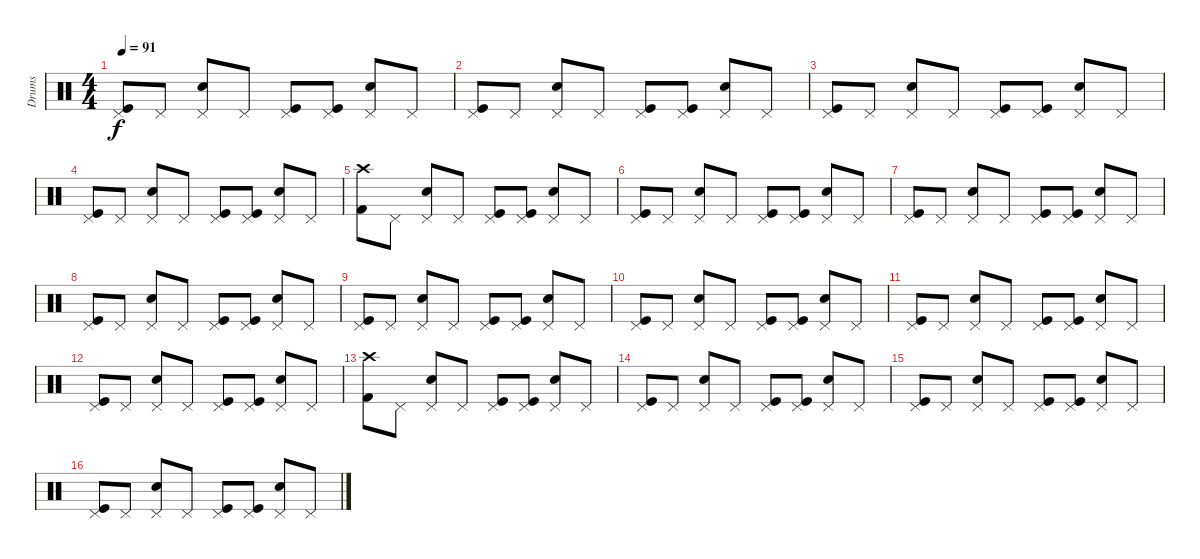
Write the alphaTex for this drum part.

\track ("Drums" "Drums") {instrument percussion}
\staff {score}
\articulation defaults
\ts (4 4)
\tempo 91
\clef neutral
\ks c
("Kick (hit)" "Pedal Hi-Hat (hit)").8{dy f} "Pedal Hi-Hat (hit)".8 ("Snare (hit) 2" "Pedal Hi-Hat (hit)").8 "Pedal Hi-Hat (hit)".8 ("Kick (hit)" "Pedal Hi-Hat (hit)").8 ("Kick (hit)" "Pedal Hi-Hat (hit)").8 ("Snare (hit) 2" "Pedal Hi-Hat (hit)").8 "Pedal Hi-Hat (hit)".8 |
("Kick (hit)" "Pedal Hi-Hat (hit)").8 "Pedal Hi-Hat (hit)".8 ("Snare (hit) 2" "Pedal Hi-Hat (hit)").8 "Pedal Hi-Hat (hit)".8 ("Kick (hit)" "Pedal Hi-Hat (hit)").8 ("Kick (hit)" "Pedal Hi-Hat (hit)").8 ("Snare (hit) 2" "Pedal Hi-Hat (hit)").8 "Pedal Hi-Hat (hit)".8 |
("Kick (hit)" "Pedal Hi-Hat (hit)").8 "Pedal Hi-Hat (hit)".8 ("Snare (hit) 2" "Pedal Hi-Hat (hit)").8 "Pedal Hi-Hat (hit)".8 ("Kick (hit)" "Pedal Hi-Hat (hit)").8 ("Kick (hit)" "Pedal Hi-Hat (hit)").8 ("Snare (hit) 2" "Pedal Hi-Hat (hit)").8 "Pedal Hi-Hat (hit)".8 |
("Kick (hit)" "Pedal Hi-Hat (hit)").8 "Pedal Hi-Hat (hit)".8 ("Snare (hit) 2" "Pedal Hi-Hat (hit)").8 "Pedal Hi-Hat (hit)".8 ("Kick (hit)" "Pedal Hi-Hat (hit)").8 ("Kick (hit)" "Pedal Hi-Hat (hit)").8 ("Snare (hit) 2" "Pedal Hi-Hat (hit)").8 "Pedal Hi-Hat (hit)".8 |
("Crash high (hit)" "Kick (hit) 2").8 "Pedal Hi-Hat (hit)".8 ("Snare (hit) 2" "Pedal Hi-Hat (hit)").8 "Pedal Hi-Hat (hit)".8 ("Kick (hit)" "Pedal Hi-Hat (hit)").8 ("Kick (hit)" "Pedal Hi-Hat (hit)").8 ("Snare (hit) 2" "Pedal Hi-Hat (hit)").8 "Pedal Hi-Hat (hit)".8 |
("Kick (hit)" "Pedal Hi-Hat (hit)").8 "Pedal Hi-Hat (hit)".8 ("Snare (hit) 2" "Pedal Hi-Hat (hit)").8 "Pedal Hi-Hat (hit)".8 ("Kick (hit)" "Pedal Hi-Hat (hit)").8 ("Kick (hit)" "Pedal Hi-Hat (hit)").8 ("Snare (hit) 2" "Pedal Hi-Hat (hit)").8 "Pedal Hi-Hat (hit)".8 |
("Kick (hit)" "Pedal Hi-Hat (hit)").8 "Pedal Hi-Hat (hit)".8 ("Snare (hit) 2" "Pedal Hi-Hat (hit)").8 "Pedal Hi-Hat (hit)".8 ("Kick (hit)" "Pedal Hi-Hat (hit)").8 ("Kick (hit)" "Pedal Hi-Hat (hit)").8 ("Snare (hit) 2" "Pedal Hi-Hat (hit)").8 "Pedal Hi-Hat (hit)".8 |
("Kick (hit)" "Pedal Hi-Hat (hit)").8 "Pedal Hi-Hat (hit)".8 ("Snare (hit) 2" "Pedal Hi-Hat (hit)").8 "Pedal Hi-Hat (hit)".8 ("Kick (hit)" "Pedal Hi-Hat (hit)").8 ("Kick (hit)" "Pedal Hi-Hat (hit)").8 ("Snare (hit) 2" "Pedal Hi-Hat (hit)").8 "Pedal Hi-Hat (hit)".8 |
("Kick (hit)" "Pedal Hi-Hat (hit)").8 "Pedal Hi-Hat (hit)".8 ("Snare (hit) 2" "Pedal Hi-Hat (hit)").8 "Pedal Hi-Hat (hit)".8 ("Kick (hit)" "Pedal Hi-Hat (hit)").8 ("Kick (hit)" "Pedal Hi-Hat (hit)").8 ("Snare (hit) 2" "Pedal Hi-Hat (hit)").8 "Pedal Hi-Hat (hit)".8 |
("Kick (hit)" "Pedal Hi-Hat (hit)").8 "Pedal Hi-Hat (hit)".8 ("Snare (hit) 2" "Pedal Hi-Hat (hit)").8 "Pedal Hi-Hat (hit)".8 ("Kick (hit)" "Pedal Hi-Hat (hit)").8 ("Kick (hit)" "Pedal Hi-Hat (hit)").8 ("Snare (hit) 2" "Pedal Hi-Hat (hit)").8 "Pedal Hi-Hat (hit)".8 |
("Kick (hit)" "Pedal Hi-Hat (hit)").8 "Pedal Hi-Hat (hit)".8 ("Snare (hit) 2" "Pedal Hi-Hat (hit)").8 "Pedal Hi-Hat (hit)".8 ("Kick (hit)" "Pedal Hi-Hat (hit)").8 ("Kick (hit)" "Pedal Hi-Hat (hit)").8 ("Snare (hit) 2" "Pedal Hi-Hat (hit)").8 "Pedal Hi-Hat (hit)".8 |
("Kick (hit)" "Pedal Hi-Hat (hit)").8 "Pedal Hi-Hat (hit)".8 ("Snare (hit) 2" "Pedal Hi-Hat (hit)").8 "Pedal Hi-Hat (hit)".8 ("Kick (hit)" "Pedal Hi-Hat (hit)").8 ("Kick (hit)" "Pedal Hi-Hat (hit)").8 ("Snare (hit) 2" "Pedal Hi-Hat (hit)").8 "Pedal Hi-Hat (hit)".8 |
("Crash high (hit)" "Kick (hit) 2").8 "Pedal Hi-Hat (hit)".8 ("Snare (hit) 2" "Pedal Hi-Hat (hit)").8 "Pedal Hi-Hat (hit)".8 ("Kick (hit)" "Pedal Hi-Hat (hit)").8 ("Kick (hit)" "Pedal Hi-Hat (hit)").8 ("Snare (hit) 2" "Pedal Hi-Hat (hit)").8 "Pedal Hi-Hat (hit)".8 |
("Kick (hit)" "Pedal Hi-Hat (hit)").8 "Pedal Hi-Hat (hit)".8 ("Snare (hit) 2" "Pedal Hi-Hat (hit)").8 "Pedal Hi-Hat (hit)".8 ("Kick (hit)" "Pedal Hi-Hat (hit)").8 ("Kick (hit)" "Pedal Hi-Hat (hit)").8 ("Snare (hit) 2" "Pedal Hi-Hat (hit)").8 "Pedal Hi-Hat (hit)".8 |
("Kick (hit)" "Pedal Hi-Hat (hit)").8 "Pedal Hi-Hat (hit)".8 ("Snare (hit) 2" "Pedal Hi-Hat (hit)").8 "Pedal Hi-Hat (hit)".8 ("Kick (hit)" "Pedal Hi-Hat (hit)").8 ("Kick (hit)" "Pedal Hi-Hat (hit)").8 ("Snare (hit) 2" "Pedal Hi-Hat (hit)").8 "Pedal Hi-Hat (hit)".8 |
("Kick (hit)" "Pedal Hi-Hat (hit)").8 "Pedal Hi-Hat (hit)".8 ("Snare (hit) 2" "Pedal Hi-Hat (hit)").8 "Pedal Hi-Hat (hit)".8 ("Kick (hit)" "Pedal Hi-Hat (hit)").8 ("Kick (hit)" "Pedal Hi-Hat (hit)").8 ("Snare (hit) 2" "Pedal Hi-Hat (hit)").8 "Pedal Hi-Hat (hit)".8
